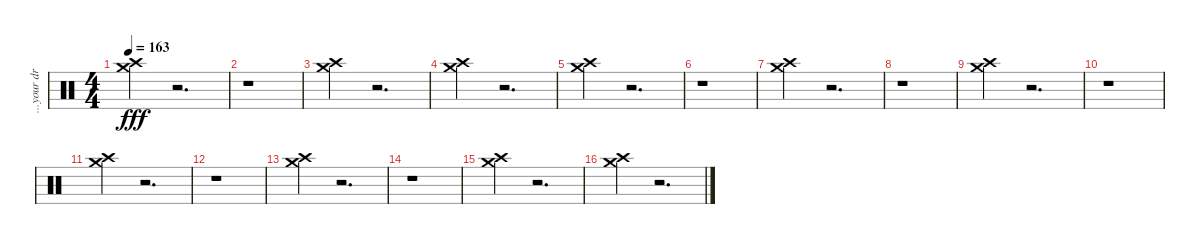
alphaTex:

\track ("...your drums (read: cymbals)..." "...your dr") {instrument percussion}
\staff {score}
\articulation defaults
\ts (4 4)
\tempo 163
\clef neutral
\ks c
("Crash high (hit)" "Crash medium (hit)").4{dy fff} r.2{d} |
r.1 |
("Crash high (hit)" "Crash medium (hit)").4 r.2{d} |
("Crash high (hit)" "Crash medium (hit)").4 r.2{d} |
("Crash high (hit)" "Crash medium (hit)").4 r.2{d} |
r.1 |
("Crash high (hit)" "Crash medium (hit)").4 r.2{d} |
r.1 |
("Crash high (hit)" "Crash medium (hit)").4 r.2{d} |
r.1 |
("Crash high (hit)" "Crash medium (hit)").4 r.2{d} |
r.1 |
("Crash high (hit)" "Crash medium (hit)").4 r.2{d} |
r.1 |
("Crash high (hit)" "Crash medium (hit)").4 r.2{d} |
("Crash high (hit)" "Crash medium (hit)").4 r.2{d}
